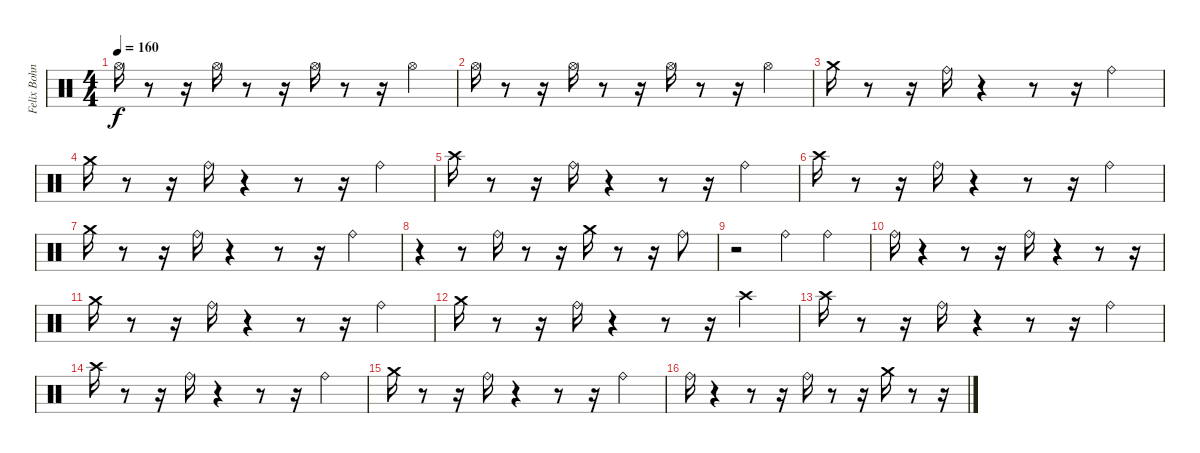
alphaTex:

\track ("Felix Bohnke" "Felix Bohn") {instrument percussion}
\staff {score}
\articulation defaults
\ts (4 4)
\tempo 160
\clef neutral
\ks c "Hi-Hat (open)".16{dy f}
r.8 r.16 "Hi-Hat (open)".16 r.8 r.16 "Hi-Hat (open)".16 r.8 r.16 "Hi-Hat (open)".4 |
"Hi-Hat (open)".16 r.8 r.16 "Hi-Hat (open)".16 r.8 r.16 "Hi-Hat (open)".16 r.8 r.16 "Hi-Hat (open)".4 |
"Crash medium (hit)".16 r.8 r.16 "Ride (bell)".16 r.4 r.8 r.16 "Ride (bell)".4 |
"Crash medium (hit)".16 r.8 r.16 "Ride (bell)".16 r.4 r.8 r.16 "Ride (bell)".4 |
"Crash high (hit)".16 r.8 r.16 "Ride (bell)".16 r.4 r.8 r.16 "Ride (bell)".4 |
"Crash high (hit)".16 r.8 r.16 "Ride (bell)".16 r.4 r.8 r.16 "Ride (bell)".4 |
"Crash medium (hit)".16 r.8 r.16 "Ride (bell)".16 r.4 r.8 r.16 "Ride (bell)".4 |
r.4 r.8 "Ride (bell)".16 r.8 r.16 "Crash medium (hit)".16 r.8 r.16 "Ride (bell)".8 |
r.2 "Ride (bell)".4 "Ride (bell)".4 |
"Ride (bell)".16 r.4 r.8 r.16 "Ride (bell)".16 r.4 r.8 r.16 |
"Crash medium (hit)".16 r.8 r.16 "Ride (bell)".16 r.4 r.8 r.16 "Ride (bell)".4 |
"Crash medium (hit)".16 r.8 r.16 "Ride (bell)".16 r.4 r.8 r.16 "Crash high (hit)".4 |
"Crash high (hit)".16 r.8 r.16 "Ride (bell)".16 r.4 r.8 r.16 "Ride (bell)".4 |
"Crash high (hit)".16 r.8 r.16 "Ride (bell)".16 r.4 r.8 r.16 "Ride (bell)".4 |
"Crash medium (hit)".16 r.8 r.16 "Ride (bell)".16 r.4 r.8 r.16 "Ride (bell)".4 |
"Ride (bell)".16 r.4 r.8 r.16 "Ride (bell)".16 r.8 r.16 "Crash medium (hit)".16 r.8 r.16
